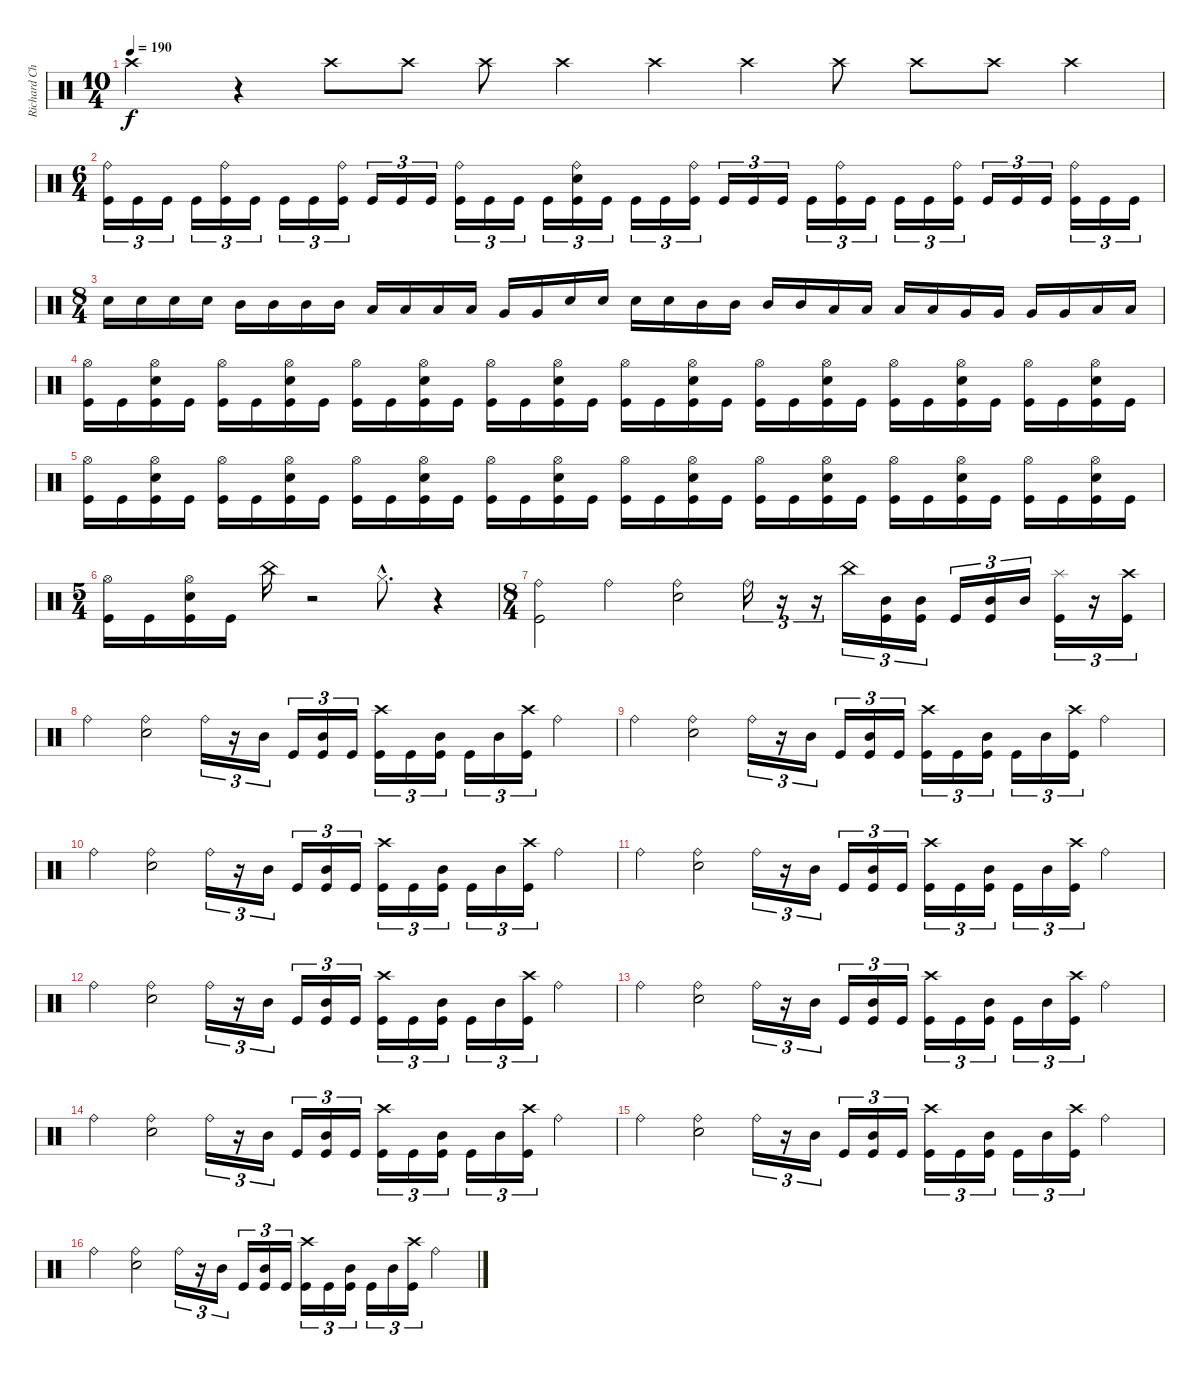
\track ("Richard Christy" "Richard Ch") {instrument percussion}
\staff {score}
\articulation defaults
\ts (10 4)
\tempo 190
\clef neutral
\ks c "Crash high (hit)".2{dy f}
r.4 "Crash high (hit)".8 "Crash high (hit)".8 "Crash high (hit)".8 "Crash high (hit)".4 "Crash high (hit)".4{volume 0} "Crash high (hit)".4{volume 16} "Crash high (hit)".8 "Crash high (hit)".8 "Crash high (hit)".8 "Crash high (hit)".4{volume 0} |
\ts (6 4)
("Ride (bell)" "Kick (hit)").16{tu (3 2) volume 16} "Kick (hit)".16{tu (3 2)} "Kick (hit)".16{tu (3 2)} "Kick (hit)".16{tu (3 2)} ("Ride (bell)" "Kick (hit)").16{tu (3 2)} "Kick (hit)".16{tu (3 2)} "Kick (hit)".16{tu (3 2)} "Kick (hit)".16{tu (3 2)} ("Ride (bell)" "Kick (hit)").16{tu (3 2)} "Kick (hit)".16{tu (3 2)} "Kick (hit)".16{tu (3 2)} "Kick (hit)".16{tu (3 2)} ("Ride (bell)" "Kick (hit)").16{tu (3 2)} "Kick (hit)".16{tu (3 2)} "Kick (hit)".16{tu (3 2)} "Kick (hit)".16{tu (3 2)} ("Ride (bell)" "Snare (hit) 2" "Kick (hit)").16{tu (3 2)} "Kick (hit)".16{tu (3 2)} "Kick (hit)".16{tu (3 2)} "Kick (hit)".16{tu (3 2)} ("Ride (bell)" "Kick (hit)").16{tu (3 2)} "Kick (hit)".16{tu (3 2)} "Kick (hit)".16{tu (3 2)} "Kick (hit)".16{tu (3 2)} "Kick (hit)".16{tu (3 2)} ("Ride (bell)" "Kick (hit)").16{tu (3 2)} "Kick (hit)".16{tu (3 2)} "Kick (hit)".16{tu (3 2)} "Kick (hit)".16{tu (3 2)} ("Ride (bell)" "Kick (hit)").16{tu (3 2)} "Kick (hit)".16{tu (3 2)} "Kick (hit)".16{tu (3 2)} "Kick (hit)".16{tu (3 2)} ("Ride (bell)" "Kick (hit)").16{tu (3 2)} "Kick (hit)".16{tu (3 2)} "Kick (hit)".16{tu (3 2)} |
\ts (8 4)
"Snare (hit) 2".16 "Snare (hit) 2".16 "Snare (hit) 2".16 "Snare (hit) 2".16 "Mid Tom (hit)".16 "Mid Tom (hit)".16 "Mid Tom (hit)".16 "Mid Tom (hit)".16 "Low Tom (hit)".16 "Low Tom (hit)".16 "Low Tom (hit)".16 "Low Tom (hit)".16 "Very Low Tom (hit)".16 "Very Low Tom (hit)".16 "Snare (hit) 2".16 "Snare (hit) 2".16 "Snare (hit) 2".16 "Snare (hit) 2".16 "Mid Tom (hit)".16 "Mid Tom (hit)".16 "Mid Tom (hit)".16 "Mid Tom (hit)".16 "Low Tom (hit)".16 "Low Tom (hit)".16 "Low Tom (hit)".16 "Low Tom (hit)".16 "Very Low Tom (hit)".16 "Very Low Tom (hit)".16 "Very Low Tom (hit)".16 "Very Low Tom (hit)".16 "Low Floor Tom (hit)".16 "Low Floor Tom (hit)".16 |
("Hi-Hat (open)" "Kick (hit)").16 "Kick (hit)".16 ("Hi-Hat (open)" "Snare (hit) 2" "Kick (hit)").16 "Kick (hit)".16 ("Hi-Hat (open)" "Kick (hit)").16 "Kick (hit)".16 ("Hi-Hat (open)" "Snare (hit) 2" "Kick (hit)").16 "Kick (hit)".16 ("Hi-Hat (open)" "Kick (hit)").16 "Kick (hit)".16 ("Hi-Hat (open)" "Snare (hit) 2" "Kick (hit)").16 "Kick (hit)".16 ("Hi-Hat (open)" "Kick (hit)").16 "Kick (hit)".16 ("Hi-Hat (open)" "Snare (hit) 2" "Kick (hit)").16 "Kick (hit)".16 ("Hi-Hat (open)" "Kick (hit)").16 "Kick (hit)".16 ("Hi-Hat (open)" "Snare (hit) 2" "Kick (hit)").16 "Kick (hit)".16 ("Hi-Hat (open)" "Kick (hit)").16 "Kick (hit)".16 ("Hi-Hat (open)" "Snare (hit) 2" "Kick (hit)").16 "Kick (hit)".16 ("Hi-Hat (open)" "Kick (hit)").16 "Kick (hit)".16 ("Hi-Hat (open)" "Snare (hit) 2" "Kick (hit)").16 "Kick (hit)".16 ("Hi-Hat (open)" "Kick (hit)").16 "Kick (hit)".16 ("Hi-Hat (open)" "Snare (hit) 2" "Kick (hit)").16 "Kick (hit)".16 |
("Hi-Hat (open)" "Kick (hit)").16 "Kick (hit)".16 ("Hi-Hat (open)" "Snare (hit) 2" "Kick (hit)").16 "Kick (hit)".16 ("Hi-Hat (open)" "Kick (hit)").16 "Kick (hit)".16 ("Hi-Hat (open)" "Snare (hit) 2" "Kick (hit)").16 "Kick (hit)".16 ("Hi-Hat (open)" "Kick (hit)").16 "Kick (hit)".16 ("Hi-Hat (open)" "Snare (hit) 2" "Kick (hit)").16 "Kick (hit)".16 ("Hi-Hat (open)" "Kick (hit)").16 "Kick (hit)".16 ("Hi-Hat (open)" "Snare (hit) 2" "Kick (hit)").16 "Kick (hit)".16 ("Hi-Hat (open)" "Kick (hit)").16 "Kick (hit)".16 ("Hi-Hat (open)" "Snare (hit) 2" "Kick (hit)").16 "Kick (hit)".16 ("Hi-Hat (open)" "Kick (hit)").16 "Kick (hit)".16 ("Hi-Hat (open)" "Snare (hit) 2" "Kick (hit)").16 "Kick (hit)".16 ("Hi-Hat (open)" "Kick (hit)").16 "Kick (hit)".16 ("Hi-Hat (open)" "Snare (hit) 2" "Kick (hit)").16 "Kick (hit)".16 ("Hi-Hat (open)" "Kick (hit)").16 "Kick (hit)".16 ("Hi-Hat (open)" "Snare (hit) 2" "Kick (hit)").16 "Kick (hit)".16 |
\ts (5 4)
("Hi-Hat (open)" "Kick (hit)").16 "Kick (hit)".16 ("Hi-Hat (open)" "Snare (hit) 2" "Kick (hit)").16 "Kick (hit)".16 "China (hit)".16 r.2 "Hi-Hat (closed)"{hac}.8{d} r.4 |
\ts (8 4)
("Ride (bell)" "Kick (hit)").2 "Ride (bell)".2 ("Ride (bell)" "Snare (hit) 2").2 "Ride (bell)".16{tu (3 2)} r.16{tu (3 2)} r.16{tu (3 2)} "China (hit)".16{tu (3 2)} ("Mid Tom (hit)" "Kick (hit)").16{tu (3 2)} ("Mid Tom (hit)" "Kick (hit)").16{tu (3 2)} "Kick (hit)".16{tu (3 2)} ("Mid Tom (hit)" "Kick (hit)").16{tu (3 2)} "Mid Tom (hit)".16{tu (3 2)} ("Splash (hit)" "Kick (hit)").16{tu (3 2)} r.16{tu (3 2)} ("Crash high (hit)" "Kick (hit)").16{tu (3 2)} |
"Ride (bell)".2 ("Ride (bell)" "Snare (hit) 2").2 "Ride (bell)".16{tu (3 2)} r.16{tu (3 2)} "Mid Tom (hit)".16{tu (3 2)} "Kick (hit)".16{tu (3 2)} ("Mid Tom (hit)" "Kick (hit)").16{tu (3 2)} "Kick (hit)".16{tu (3 2)} ("Crash high (hit)" "Kick (hit)").16{tu (3 2)} "Kick (hit)".16{tu (3 2)} ("Mid Tom (hit)" "Kick (hit)").16{tu (3 2)} "Kick (hit)".16{tu (3 2)} "Mid Tom (hit)".16{tu (3 2)} ("Crash high (hit)" "Kick (hit)").16{tu (3 2)} "Ride (bell)".2 |
"Ride (bell)".2 ("Ride (bell)" "Snare (hit) 2").2 "Ride (bell)".16{tu (3 2)} r.16{tu (3 2)} "Mid Tom (hit)".16{tu (3 2)} "Kick (hit)".16{tu (3 2)} ("Mid Tom (hit)" "Kick (hit)").16{tu (3 2)} "Kick (hit)".16{tu (3 2)} ("Crash high (hit)" "Kick (hit)").16{tu (3 2)} "Kick (hit)".16{tu (3 2)} ("Mid Tom (hit)" "Kick (hit)").16{tu (3 2)} "Kick (hit)".16{tu (3 2)} "Mid Tom (hit)".16{tu (3 2)} ("Crash high (hit)" "Kick (hit)").16{tu (3 2)} "Ride (bell)".2 |
"Ride (bell)".2 ("Ride (bell)" "Snare (hit) 2").2 "Ride (bell)".16{tu (3 2)} r.16{tu (3 2)} "Mid Tom (hit)".16{tu (3 2)} "Kick (hit)".16{tu (3 2)} ("Mid Tom (hit)" "Kick (hit)").16{tu (3 2)} "Kick (hit)".16{tu (3 2)} ("Crash high (hit)" "Kick (hit)").16{tu (3 2)} "Kick (hit)".16{tu (3 2)} ("Mid Tom (hit)" "Kick (hit)").16{tu (3 2)} "Kick (hit)".16{tu (3 2)} "Mid Tom (hit)".16{tu (3 2)} ("Crash high (hit)" "Kick (hit)").16{tu (3 2)} "Ride (bell)".2 |
"Ride (bell)".2 ("Ride (bell)" "Snare (hit) 2").2 "Ride (bell)".16{tu (3 2)} r.16{tu (3 2)} "Mid Tom (hit)".16{tu (3 2)} "Kick (hit)".16{tu (3 2)} ("Mid Tom (hit)" "Kick (hit)").16{tu (3 2)} "Kick (hit)".16{tu (3 2)} ("Crash high (hit)" "Kick (hit)").16{tu (3 2)} "Kick (hit)".16{tu (3 2)} ("Mid Tom (hit)" "Kick (hit)").16{tu (3 2)} "Kick (hit)".16{tu (3 2)} "Mid Tom (hit)".16{tu (3 2)} ("Crash high (hit)" "Kick (hit)").16{tu (3 2)} "Ride (bell)".2 |
"Ride (bell)".2 ("Ride (bell)" "Snare (hit) 2").2 "Ride (bell)".16{tu (3 2)} r.16{tu (3 2)} "Mid Tom (hit)".16{tu (3 2)} "Kick (hit)".16{tu (3 2)} ("Mid Tom (hit)" "Kick (hit)").16{tu (3 2)} "Kick (hit)".16{tu (3 2)} ("Crash high (hit)" "Kick (hit)").16{tu (3 2)} "Kick (hit)".16{tu (3 2)} ("Mid Tom (hit)" "Kick (hit)").16{tu (3 2)} "Kick (hit)".16{tu (3 2)} "Mid Tom (hit)".16{tu (3 2)} ("Crash high (hit)" "Kick (hit)").16{tu (3 2)} "Ride (bell)".2 |
"Ride (bell)".2 ("Ride (bell)" "Snare (hit) 2").2 "Ride (bell)".16{tu (3 2)} r.16{tu (3 2)} "Mid Tom (hit)".16{tu (3 2)} "Kick (hit)".16{tu (3 2)} ("Mid Tom (hit)" "Kick (hit)").16{tu (3 2)} "Kick (hit)".16{tu (3 2)} ("Crash high (hit)" "Kick (hit)").16{tu (3 2)} "Kick (hit)".16{tu (3 2)} ("Mid Tom (hit)" "Kick (hit)").16{tu (3 2)} "Kick (hit)".16{tu (3 2)} "Mid Tom (hit)".16{tu (3 2)} ("Crash high (hit)" "Kick (hit)").16{tu (3 2)} "Ride (bell)".2 |
"Ride (bell)".2 ("Ride (bell)" "Snare (hit) 2").2 "Ride (bell)".16{tu (3 2)} r.16{tu (3 2)} "Mid Tom (hit)".16{tu (3 2)} "Kick (hit)".16{tu (3 2)} ("Mid Tom (hit)" "Kick (hit)").16{tu (3 2)} "Kick (hit)".16{tu (3 2)} ("Crash high (hit)" "Kick (hit)").16{tu (3 2)} "Kick (hit)".16{tu (3 2)} ("Mid Tom (hit)" "Kick (hit)").16{tu (3 2)} "Kick (hit)".16{tu (3 2)} "Mid Tom (hit)".16{tu (3 2)} ("Crash high (hit)" "Kick (hit)").16{tu (3 2)} "Ride (bell)".2 |
"Ride (bell)".2 ("Ride (bell)" "Snare (hit) 2").2 "Ride (bell)".16{tu (3 2)} r.16{tu (3 2)} "Mid Tom (hit)".16{tu (3 2)} "Kick (hit)".16{tu (3 2)} ("Mid Tom (hit)" "Kick (hit)").16{tu (3 2)} "Kick (hit)".16{tu (3 2)} ("Crash high (hit)" "Kick (hit)").16{tu (3 2)} "Kick (hit)".16{tu (3 2)} ("Mid Tom (hit)" "Kick (hit)").16{tu (3 2)} "Kick (hit)".16{tu (3 2)} "Mid Tom (hit)".16{tu (3 2)} ("Crash high (hit)" "Kick (hit)").16{tu (3 2)} "Ride (bell)".2 |
"Ride (bell)".2 ("Ride (bell)" "Snare (hit) 2").2 "Ride (bell)".16{tu (3 2)} r.16{tu (3 2)} "Mid Tom (hit)".16{tu (3 2)} "Kick (hit)".16{tu (3 2)} ("Mid Tom (hit)" "Kick (hit)").16{tu (3 2)} "Kick (hit)".16{tu (3 2)} ("Crash high (hit)" "Kick (hit)").16{tu (3 2)} "Kick (hit)".16{tu (3 2)} ("Mid Tom (hit)" "Kick (hit)").16{tu (3 2)} "Kick (hit)".16{tu (3 2)} "Mid Tom (hit)".16{tu (3 2)} ("Crash high (hit)" "Kick (hit)").16{tu (3 2)} "Ride (bell)".2
